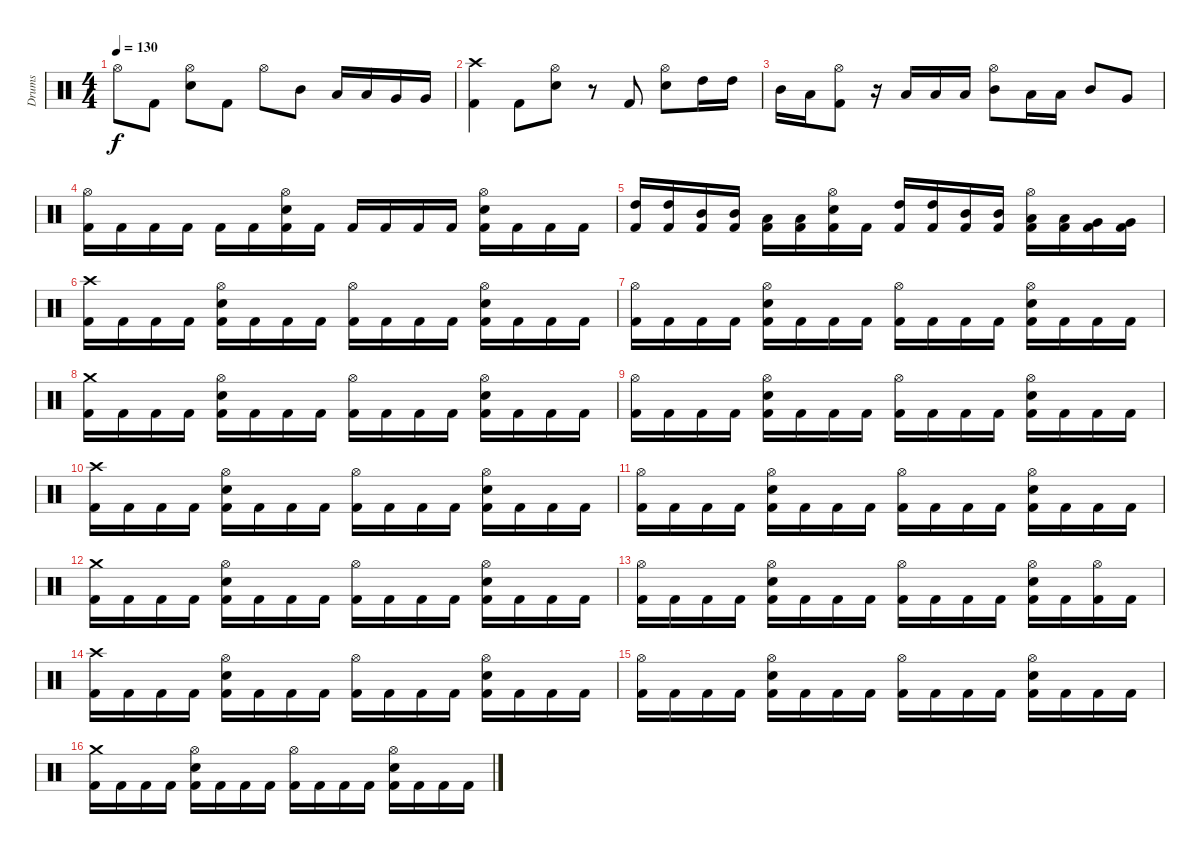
\track ("Drums" "Drums") {instrument percussion}
\staff {score}
\articulation defaults
\ts (4 4)
\tempo 130
\clef neutral
\ks c "Hi-Hat (open)".8{dy f} "Kick (hit) 2".8
("Hi-Hat (open)" "Electric Snare (hit)").8 "Kick (hit) 2".8 "Hi-Hat (open)".8 "Mid Tom (hit)".8 "Low Tom (hit)".16 "Low Tom (hit)".16 "Very Low Tom (hit)".16 "Very Low Tom (hit)".16 |
("Crash high (hit)" "Kick (hit) 2").4 "Kick (hit) 2".8 ("Hi-Hat (open)" "Electric Snare (hit)").8 r.8 "Kick (hit) 2".8 ("Hi-Hat (open)" "Electric Snare (hit)").8 "High Tom (hit)".16 "High Tom (hit)".16 |
"Mid Tom (hit)".16 "Low Tom (hit)".16 ("Hi-Hat (open)" "Kick (hit) 2").8 r.16 "Low Tom (hit)".16 "Low Tom (hit)".16 "Low Tom (hit)".16 ("Hi-Hat (open)" "Mid Tom (hit)").8 "Low Tom (hit)".16 "Low Tom (hit)".16 "Mid Tom (hit)".8 "Very Low Tom (hit)".8 |
("Hi-Hat (open)" "Kick (hit) 2").16 "Kick (hit) 2".16 "Kick (hit) 2".16 "Kick (hit) 2".16 "Kick (hit) 2".16 "Kick (hit) 2".16 ("Hi-Hat (open)" "Electric Snare (hit)" "Kick (hit) 2").16 "Kick (hit) 2".16 "Kick (hit) 2".16 "Kick (hit) 2".16 "Kick (hit) 2".16 "Kick (hit) 2".16 ("Hi-Hat (open)" "Electric Snare (hit)" "Kick (hit) 2").16 "Kick (hit) 2".16 "Kick (hit) 2".16 "Kick (hit) 2".16 |
("High Tom (hit)" "Kick (hit) 2").16 ("High Tom (hit)" "Kick (hit) 2").16 ("Mid Tom (hit)" "Kick (hit) 2").16 ("Mid Tom (hit)" "Kick (hit) 2").16 ("Low Tom (hit)" "Kick (hit) 2").16 ("Low Tom (hit)" "Kick (hit) 2").16 ("Hi-Hat (open)" "Electric Snare (hit)" "Kick (hit) 2").16 "Kick (hit) 2".16 ("High Tom (hit)" "Kick (hit) 2").16 ("High Tom (hit)" "Kick (hit) 2").16 ("Mid Tom (hit)" "Kick (hit) 2").16 ("Mid Tom (hit)" "Kick (hit) 2").16 ("Hi-Hat (open)" "Low Tom (hit)" "Kick (hit) 2").16 ("Low Tom (hit)" "Kick (hit) 2").16 ("Very Low Tom (hit)" "Kick (hit) 2").16 ("Very Low Tom (hit)" "Kick (hit) 2").16 |
("Crash high (hit)" "Kick (hit) 2").16 "Kick (hit) 2".16 "Kick (hit) 2".16 "Kick (hit) 2".16 ("Hi-Hat (open)" "Electric Snare (hit)" "Kick (hit) 2").16 "Kick (hit) 2".16 "Kick (hit) 2".16 "Kick (hit) 2".16 ("Hi-Hat (open)" "Kick (hit) 2").16 "Kick (hit) 2".16 "Kick (hit) 2".16 "Kick (hit) 2".16 ("Hi-Hat (open)" "Electric Snare (hit)" "Kick (hit) 2").16 "Kick (hit) 2".16 "Kick (hit) 2".16 "Kick (hit) 2".16 |
("Hi-Hat (open)" "Kick (hit) 2").16 "Kick (hit) 2".16 "Kick (hit) 2".16 "Kick (hit) 2".16 ("Hi-Hat (open)" "Electric Snare (hit)" "Kick (hit) 2").16 "Kick (hit) 2".16 "Kick (hit) 2".16 "Kick (hit) 2".16 ("Hi-Hat (open)" "Kick (hit) 2").16 "Kick (hit) 2".16 "Kick (hit) 2".16 "Kick (hit) 2".16 ("Hi-Hat (open)" "Electric Snare (hit)" "Kick (hit) 2").16 "Kick (hit) 2".16 "Kick (hit) 2".16 "Kick (hit) 2".16 |
("Crash medium (hit)" "Kick (hit) 2").16 "Kick (hit) 2".16 "Kick (hit) 2".16 "Kick (hit) 2".16 ("Hi-Hat (open)" "Electric Snare (hit)" "Kick (hit) 2").16 "Kick (hit) 2".16 "Kick (hit) 2".16 "Kick (hit) 2".16 ("Hi-Hat (open)" "Kick (hit) 2").16 "Kick (hit) 2".16 "Kick (hit) 2".16 "Kick (hit) 2".16 ("Hi-Hat (open)" "Electric Snare (hit)" "Kick (hit) 2").16 "Kick (hit) 2".16 "Kick (hit) 2".16 "Kick (hit) 2".16 |
("Hi-Hat (open)" "Kick (hit) 2").16 "Kick (hit) 2".16 "Kick (hit) 2".16 "Kick (hit) 2".16 ("Hi-Hat (open)" "Electric Snare (hit)" "Kick (hit) 2").16 "Kick (hit) 2".16 "Kick (hit) 2".16 "Kick (hit) 2".16 ("Hi-Hat (open)" "Kick (hit) 2").16 "Kick (hit) 2".16 "Kick (hit) 2".16 "Kick (hit) 2".16 ("Hi-Hat (open)" "Electric Snare (hit)" "Kick (hit) 2").16 "Kick (hit) 2".16 "Kick (hit) 2".16 "Kick (hit) 2".16 |
("Crash high (hit)" "Kick (hit) 2").16 "Kick (hit) 2".16 "Kick (hit) 2".16 "Kick (hit) 2".16 ("Hi-Hat (open)" "Electric Snare (hit)" "Kick (hit) 2").16 "Kick (hit) 2".16 "Kick (hit) 2".16 "Kick (hit) 2".16 ("Hi-Hat (open)" "Kick (hit) 2").16 "Kick (hit) 2".16 "Kick (hit) 2".16 "Kick (hit) 2".16 ("Hi-Hat (open)" "Electric Snare (hit)" "Kick (hit) 2").16 "Kick (hit) 2".16 "Kick (hit) 2".16 "Kick (hit) 2".16 |
("Hi-Hat (open)" "Kick (hit) 2").16 "Kick (hit) 2".16 "Kick (hit) 2".16 "Kick (hit) 2".16 ("Hi-Hat (open)" "Electric Snare (hit)" "Kick (hit) 2").16 "Kick (hit) 2".16 "Kick (hit) 2".16 "Kick (hit) 2".16 ("Hi-Hat (open)" "Kick (hit) 2").16 "Kick (hit) 2".16 "Kick (hit) 2".16 "Kick (hit) 2".16 ("Hi-Hat (open)" "Electric Snare (hit)" "Kick (hit) 2").16 "Kick (hit) 2".16 "Kick (hit) 2".16 "Kick (hit) 2".16 |
("Crash medium (hit)" "Kick (hit) 2").16 "Kick (hit) 2".16 "Kick (hit) 2".16 "Kick (hit) 2".16 ("Hi-Hat (open)" "Electric Snare (hit)" "Kick (hit) 2").16 "Kick (hit) 2".16 "Kick (hit) 2".16 "Kick (hit) 2".16 ("Hi-Hat (open)" "Kick (hit) 2").16 "Kick (hit) 2".16 "Kick (hit) 2".16 "Kick (hit) 2".16 ("Hi-Hat (open)" "Electric Snare (hit)" "Kick (hit) 2").16 "Kick (hit) 2".16 "Kick (hit) 2".16 "Kick (hit) 2".16 |
("Hi-Hat (open)" "Kick (hit) 2").16 "Kick (hit) 2".16 "Kick (hit) 2".16 "Kick (hit) 2".16 ("Hi-Hat (open)" "Electric Snare (hit)" "Kick (hit) 2").16 "Kick (hit) 2".16 "Kick (hit) 2".16 "Kick (hit) 2".16 ("Hi-Hat (open)" "Kick (hit) 2").16 "Kick (hit) 2".16 "Kick (hit) 2".16 "Kick (hit) 2".16 ("Hi-Hat (open)" "Electric Snare (hit)" "Kick (hit) 2").16 "Kick (hit) 2".16 ("Hi-Hat (open)" "Kick (hit) 2").16 "Kick (hit) 2".16 |
("Crash high (hit)" "Kick (hit) 2").16 "Kick (hit) 2".16 "Kick (hit) 2".16 "Kick (hit) 2".16 ("Hi-Hat (open)" "Electric Snare (hit)" "Kick (hit) 2").16 "Kick (hit) 2".16 "Kick (hit) 2".16 "Kick (hit) 2".16 ("Hi-Hat (open)" "Kick (hit) 2").16 "Kick (hit) 2".16 "Kick (hit) 2".16 "Kick (hit) 2".16 ("Hi-Hat (open)" "Electric Snare (hit)" "Kick (hit) 2").16 "Kick (hit) 2".16 "Kick (hit) 2".16 "Kick (hit) 2".16 |
("Hi-Hat (open)" "Kick (hit) 2").16 "Kick (hit) 2".16 "Kick (hit) 2".16 "Kick (hit) 2".16 ("Hi-Hat (open)" "Electric Snare (hit)" "Kick (hit) 2").16 "Kick (hit) 2".16 "Kick (hit) 2".16 "Kick (hit) 2".16 ("Hi-Hat (open)" "Kick (hit) 2").16 "Kick (hit) 2".16 "Kick (hit) 2".16 "Kick (hit) 2".16 ("Hi-Hat (open)" "Electric Snare (hit)" "Kick (hit) 2").16 "Kick (hit) 2".16 "Kick (hit) 2".16 "Kick (hit) 2".16 |
("Crash medium (hit)" "Kick (hit) 2").16 "Kick (hit) 2".16 "Kick (hit) 2".16 "Kick (hit) 2".16 ("Hi-Hat (open)" "Electric Snare (hit)" "Kick (hit) 2").16 "Kick (hit) 2".16 "Kick (hit) 2".16 "Kick (hit) 2".16 ("Hi-Hat (open)" "Kick (hit) 2").16 "Kick (hit) 2".16 "Kick (hit) 2".16 "Kick (hit) 2".16 ("Hi-Hat (open)" "Electric Snare (hit)" "Kick (hit) 2").16 "Kick (hit) 2".16 "Kick (hit) 2".16 "Kick (hit) 2".16
